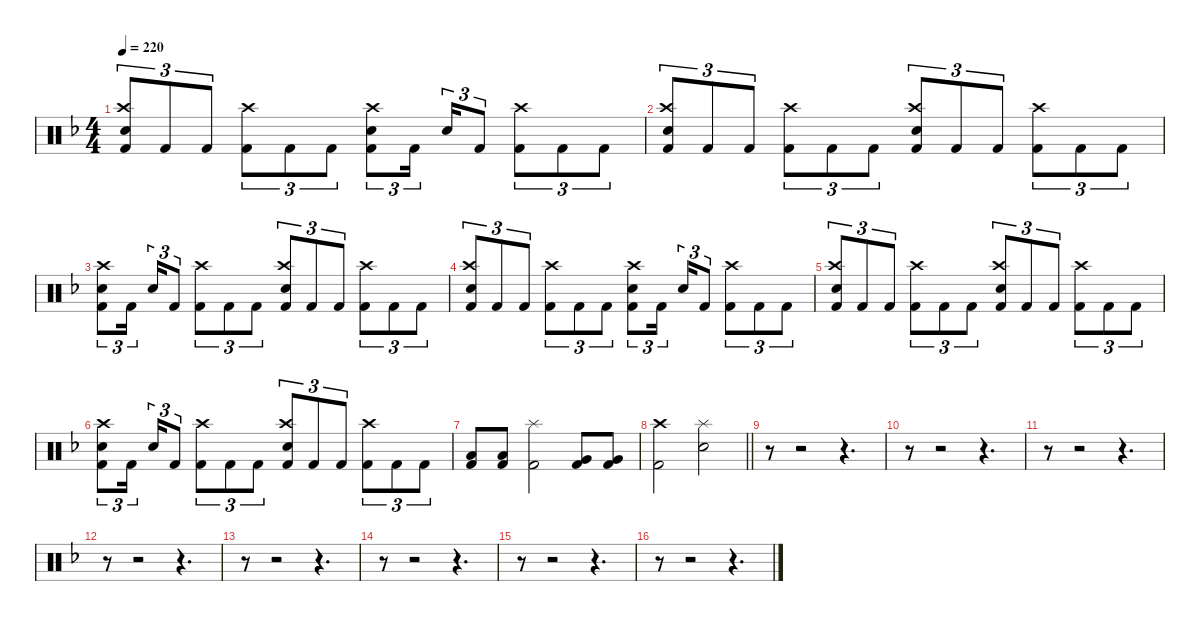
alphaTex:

\hideDynamics
\bracketExtendMode nobrackets
\singleTrackTrackNamePolicy hidden
\multiTrackTrackNamePolicy hidden
\firstSystemTrackNameMode fullname
\firstSystemTrackNameOrientation horizontal
\otherSystemsTrackNameOrientation horizontal
\track ("Drumkit" "Drums") {instrument percussion}
\staff {score}
\articulation defaults
\ts (4 4)
\tempo 220
\clef neutral
\ks dminor
("Crash high (hit)"{acc forcenatural} "Snare (hit) 2"{acc forcenatural} "Kick (hit) 2"{acc forcenatural}).8{tu (3 2) dy f beam Up} "Kick (hit) 2"{acc forcenatural}.8{tu (3 2) beam Up} "Kick (hit) 2"{acc forcenatural}.8{tu (3 2) beam Up} ("Crash high (hit)"{acc forcenatural} "Kick (hit) 2"{acc forcenatural}).8{tu (3 2) dy mp beam Down} "Kick (hit) 2"{acc forcenatural}.8{tu (3 2) dy f beam Down} "Kick (hit) 2"{acc forcenatural}.8{tu (3 2) beam Down} ("Crash high (hit)"{acc forcenatural} "Snare (hit) 2"{acc forcenatural} "Kick (hit) 2"{acc forcenatural}).8{tu (3 2) beam Down} "Kick (hit) 2"{acc forcenatural}.16{tu (3 2) beam Down} "Snare (hit) 2"{acc forcenatural}.16{tu (3 2) dy mf beam Up} "Kick (hit) 2"{acc forcenatural}.8{tu (3 2) dy f beam Up} ("Crash high (hit)"{acc forcenatural} "Kick (hit) 2"{acc forcenatural}).8{tu (3 2) dy mp beam Down} "Kick (hit) 2"{acc forcenatural}.8{tu (3 2) dy f beam Down} "Kick (hit) 2"{acc forcenatural}.8{tu (3 2) beam Down} |
("Crash high (hit)"{acc forcenatural} "Snare (hit) 2"{acc forcenatural} "Kick (hit) 2"{acc forcenatural}).8{tu (3 2) beam Up} "Kick (hit) 2"{acc forcenatural}.8{tu (3 2) beam Up} "Kick (hit) 2"{acc forcenatural}.8{tu (3 2) beam Up} ("Crash high (hit)"{acc forcenatural} "Kick (hit) 2"{acc forcenatural}).8{tu (3 2) dy mp beam Down} "Kick (hit) 2"{acc forcenatural}.8{tu (3 2) dy f beam Down} "Kick (hit) 2"{acc forcenatural}.8{tu (3 2) beam Down} ("Crash high (hit)"{acc forcenatural} "Snare (hit) 2"{acc forcenatural} "Kick (hit) 2"{acc forcenatural}).8{tu (3 2) beam Up} "Kick (hit) 2"{acc forcenatural}.8{tu (3 2) beam Up} "Kick (hit) 2"{acc forcenatural}.8{tu (3 2) beam Up} ("Crash high (hit)"{acc forcenatural} "Kick (hit) 2"{acc forcenatural}).8{tu (3 2) dy mp beam Down} "Kick (hit) 2"{acc forcenatural}.8{tu (3 2) dy f beam Down} "Kick (hit) 2"{acc forcenatural}.8{tu (3 2) beam Down} |
("Crash high (hit)"{acc forcenatural} "Snare (hit) 2"{acc forcenatural} "Kick (hit) 2"{acc forcenatural}).8{tu (3 2) beam Down} "Kick (hit) 2"{acc forcenatural}.16{tu (3 2) beam Down} "Snare (hit) 2"{acc forcenatural}.16{tu (3 2) dy mf beam Up} "Kick (hit) 2"{acc forcenatural}.8{tu (3 2) dy f beam Up} ("Crash high (hit)"{acc forcenatural} "Kick (hit) 2"{acc forcenatural}).8{tu (3 2) dy mp beam Down} "Kick (hit) 2"{acc forcenatural}.8{tu (3 2) dy f beam Down} "Kick (hit) 2"{acc forcenatural}.8{tu (3 2) beam Down} ("Crash high (hit)"{acc forcenatural} "Snare (hit) 2"{acc forcenatural} "Kick (hit) 2"{acc forcenatural}).8{tu (3 2) beam Up} "Kick (hit) 2"{acc forcenatural}.8{tu (3 2) beam Up} "Kick (hit) 2"{acc forcenatural}.8{tu (3 2) beam Up} ("Crash high (hit)"{acc forcenatural} "Kick (hit) 2"{acc forcenatural}).8{tu (3 2) dy mp beam Down} "Kick (hit) 2"{acc forcenatural}.8{tu (3 2) dy f beam Down} "Kick (hit) 2"{acc forcenatural}.8{tu (3 2) beam Down} |
("Crash high (hit)"{acc forcenatural} "Snare (hit) 2"{acc forcenatural} "Kick (hit) 2"{acc forcenatural}).8{tu (3 2) beam Up} "Kick (hit) 2"{acc forcenatural}.8{tu (3 2) beam Up} "Kick (hit) 2"{acc forcenatural}.8{tu (3 2) beam Up} ("Crash high (hit)"{acc forcenatural} "Kick (hit) 2"{acc forcenatural}).8{tu (3 2) dy mp beam Down} "Kick (hit) 2"{acc forcenatural}.8{tu (3 2) dy f beam Down} "Kick (hit) 2"{acc forcenatural}.8{tu (3 2) beam Down} ("Crash high (hit)"{acc forcenatural} "Snare (hit) 2"{acc forcenatural} "Kick (hit) 2"{acc forcenatural}).8{tu (3 2) beam Down} "Kick (hit) 2"{acc forcenatural}.16{tu (3 2) beam Down} "Snare (hit) 2"{acc forcenatural}.16{tu (3 2) dy mf beam Up} "Kick (hit) 2"{acc forcenatural}.8{tu (3 2) dy f beam Up} ("Crash high (hit)"{acc forcenatural} "Kick (hit) 2"{acc forcenatural}).8{tu (3 2) dy mp beam Down} "Kick (hit) 2"{acc forcenatural}.8{tu (3 2) dy f beam Down} "Kick (hit) 2"{acc forcenatural}.8{tu (3 2) beam Down} |
("Crash high (hit)"{acc forcenatural} "Snare (hit) 2"{acc forcenatural} "Kick (hit) 2"{acc forcenatural}).8{tu (3 2) beam Up} "Kick (hit) 2"{acc forcenatural}.8{tu (3 2) beam Up} "Kick (hit) 2"{acc forcenatural}.8{tu (3 2) beam Up} ("Crash high (hit)"{acc forcenatural} "Kick (hit) 2"{acc forcenatural}).8{tu (3 2) dy mp beam Down} "Kick (hit) 2"{acc forcenatural}.8{tu (3 2) dy f beam Down} "Kick (hit) 2"{acc forcenatural}.8{tu (3 2) beam Down} ("Crash high (hit)"{acc forcenatural} "Snare (hit) 2"{acc forcenatural} "Kick (hit) 2"{acc forcenatural}).8{tu (3 2) beam Up} "Kick (hit) 2"{acc forcenatural}.8{tu (3 2) beam Up} "Kick (hit) 2"{acc forcenatural}.8{tu (3 2) beam Up} ("Crash high (hit)"{acc forcenatural} "Kick (hit) 2"{acc forcenatural}).8{tu (3 2) dy mp beam Down} "Kick (hit) 2"{acc forcenatural}.8{tu (3 2) dy f beam Down} "Kick (hit) 2"{acc forcenatural}.8{tu (3 2) beam Down} |
("Crash high (hit)"{acc forcenatural} "Snare (hit) 2"{acc forcenatural} "Kick (hit) 2"{acc forcenatural}).8{tu (3 2) beam Down} "Kick (hit) 2"{acc forcenatural}.16{tu (3 2) beam Down} "Snare (hit) 2"{acc forcenatural}.16{tu (3 2) dy mf beam Up} "Kick (hit) 2"{acc forcenatural}.8{tu (3 2) dy f beam Up} ("Crash high (hit)"{acc forcenatural} "Kick (hit) 2"{acc forcenatural}).8{tu (3 2) dy mp beam Down} "Kick (hit) 2"{acc forcenatural}.8{tu (3 2) dy f beam Down} "Kick (hit) 2"{acc forcenatural}.8{tu (3 2) beam Down} ("Crash high (hit)"{acc forcenatural} "Snare (hit) 2"{acc forcenatural} "Kick (hit) 2"{acc forcenatural}).8{tu (3 2) beam Up} "Kick (hit) 2"{acc forcenatural}.8{tu (3 2) beam Up} "Kick (hit) 2"{acc forcenatural}.8{tu (3 2) beam Up} ("Crash high (hit)"{acc forcenatural} "Kick (hit) 2"{acc forcenatural}).8{tu (3 2) dy mp beam Down} "Kick (hit) 2"{acc forcenatural}.8{tu (3 2) dy f beam Down} "Kick (hit) 2"{acc forcenatural}.8{tu (3 2) beam Down} |
("Low Tom (hit)"{acc forcenatural} "Kick (hit) 2"{acc forcenatural}).8{beam Up} ("Low Tom (hit)"{acc forcenatural} "Kick (hit) 2"{acc forcenatural}).8{beam Up} ("Splash (hit)"{acc forcenatural} "Kick (hit) 2"{acc forcenatural}).2{beam Down} ("Very Low Tom (hit)"{acc forcenatural} "Kick (hit) 2"{acc forcenatural}).8{beam Up} ("Very Low Tom (hit)"{acc forcenatural} "Kick (hit) 2"{acc forcenatural}).8{beam Up} |
\barLineRight lightlight
("Crash high (hit)"{acc forcenatural} "Kick (hit) 2"{acc forcenatural}).2{beam Down} ("Splash (hit)"{acc forcenatural} "Snare (hit) 2"{acc forcenatural}).2{dy mf beam Down} |
r.8{beam Down} r.2{beam Down} r.4{d beam Down} |
r.8{beam Down} r.2{beam Down} r.4{d beam Down} |
r.8{beam Down} r.2{beam Down} r.4{d beam Down} |
r.8{beam Down} r.2{beam Down} r.4{d beam Down} |
r.8{beam Down} r.2{beam Down} r.4{d beam Down} |
r.8{beam Down} r.2{beam Down} r.4{d beam Down} |
r.8{beam Down} r.2{beam Down} r.4{d beam Down} |
r.8{beam Down} r.2{beam Down} r.4{d beam Down}
